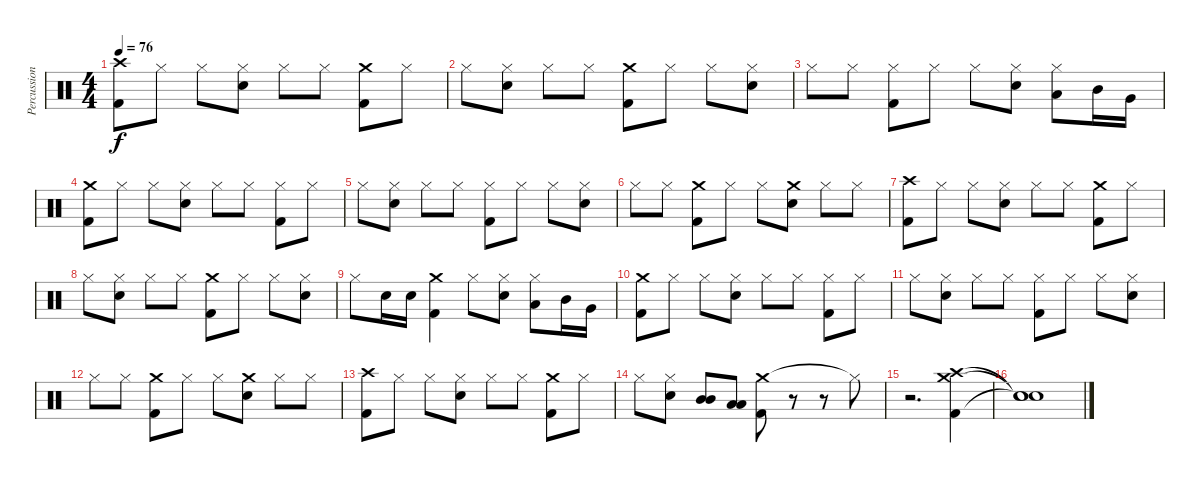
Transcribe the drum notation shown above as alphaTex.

\track ("Percussions" "Percussion") {instrument percussion}
\staff {score}
\articulation defaults
\ts (4 4)
\tempo 76
\clef neutral
\ks c
("Crash high (hit)" "Kick (hit) 2").8{dy f} "Hi-Hat (closed)".8 "Hi-Hat (closed)".8 ("Hi-Hat (closed)" "Electric Snare (hit)").8 "Hi-Hat (closed)".8 "Hi-Hat (closed)".8 ("Crash medium (hit)" "Kick (hit) 2").8 "Hi-Hat (closed)".8 |
"Hi-Hat (closed)".8 ("Hi-Hat (closed)" "Electric Snare (hit)").8 "Hi-Hat (closed)".8 "Hi-Hat (closed)".8 ("Crash medium (hit)" "Kick (hit) 2").8 "Hi-Hat (closed)".8 "Hi-Hat (closed)".8 ("Hi-Hat (closed)" "Electric Snare (hit)").8 |
"Hi-Hat (closed)".8 "Hi-Hat (closed)".8 ("Hi-Hat (closed)" "Kick (hit) 2").8 "Hi-Hat (closed)".8 "Hi-Hat (closed)".8 ("Hi-Hat (closed)" "Electric Snare (hit)").8 ("Hi-Hat (closed)" "Low Tom (hit)").8 "Mid Tom (hit)".16 "Very Low Tom (hit)".16 |
("Crash medium (hit)" "Kick (hit) 2").8 "Hi-Hat (closed)".8 "Hi-Hat (closed)".8 ("Hi-Hat (closed)" "Electric Snare (hit)").8 "Hi-Hat (closed)".8 "Hi-Hat (closed)".8 ("Hi-Hat (closed)" "Kick (hit) 2").8 "Hi-Hat (closed)".8 |
"Hi-Hat (closed)".8 ("Hi-Hat (closed)" "Electric Snare (hit)").8 "Hi-Hat (closed)".8 "Hi-Hat (closed)".8 ("Hi-Hat (closed)" "Kick (hit) 2").8 "Hi-Hat (closed)".8 "Hi-Hat (closed)".8 ("Hi-Hat (closed)" "Electric Snare (hit)").8 |
"Hi-Hat (closed)".8 "Hi-Hat (closed)".8 ("Crash medium (hit)" "Kick (hit) 2").8 "Hi-Hat (closed)".8 "Hi-Hat (closed)".8 ("Crash medium (hit)" "Electric Snare (hit)").8 "Hi-Hat (closed)".8 "Hi-Hat (closed)".8 |
("Crash high (hit)" "Kick (hit) 2").8 "Hi-Hat (closed)".8 "Hi-Hat (closed)".8 ("Hi-Hat (closed)" "Electric Snare (hit)").8 "Hi-Hat (closed)".8 "Hi-Hat (closed)".8 ("Crash medium (hit)" "Kick (hit) 2").8 "Hi-Hat (closed)".8 |
"Hi-Hat (closed)".8 ("Hi-Hat (closed)" "Electric Snare (hit)").8 "Hi-Hat (closed)".8 "Hi-Hat (closed)".8 ("Crash medium (hit)" "Kick (hit) 2").8 "Hi-Hat (closed)".8 "Hi-Hat (closed)".8 ("Hi-Hat (closed)" "Electric Snare (hit)").8 |
"Hi-Hat (closed)".8 "Electric Snare (hit)".16 "Electric Snare (hit)".16 ("Crash medium (hit)" "Kick (hit) 2").4 "Hi-Hat (closed)".8 ("Hi-Hat (closed)" "Electric Snare (hit)").8 ("Hi-Hat (closed)" "Low Tom (hit)").8 "Mid Tom (hit)".16 "Very Low Tom (hit)".16 |
("Crash medium (hit)" "Kick (hit) 2").8 "Hi-Hat (closed)".8 "Hi-Hat (closed)".8 ("Hi-Hat (closed)" "Electric Snare (hit)").8 "Hi-Hat (closed)".8 "Hi-Hat (closed)".8 ("Hi-Hat (closed)" "Kick (hit) 2").8 "Hi-Hat (closed)".8 |
"Hi-Hat (closed)".8 ("Hi-Hat (closed)" "Electric Snare (hit)").8 "Hi-Hat (closed)".8 "Hi-Hat (closed)".8 ("Hi-Hat (closed)" "Kick (hit) 2").8 "Hi-Hat (closed)".8 "Hi-Hat (closed)".8 ("Hi-Hat (closed)" "Electric Snare (hit)").8 |
"Hi-Hat (closed)".8 "Hi-Hat (closed)".8 ("Crash medium (hit)" "Kick (hit) 2").8 "Hi-Hat (closed)".8 "Hi-Hat (closed)".8 ("Crash medium (hit)" "Electric Snare (hit)").8 "Hi-Hat (closed)".8 "Hi-Hat (closed)".8 |
("Crash high (hit)" "Kick (hit) 2").8 "Hi-Hat (closed)".8 "Hi-Hat (closed)".8 ("Hi-Hat (closed)" "Electric Snare (hit)").8 "Hi-Hat (closed)".8 "Hi-Hat (closed)".8 ("Crash medium (hit)" "Kick (hit) 2").8 "Hi-Hat (closed)".8 |
"Hi-Hat (closed)".8 ("Hi-Hat (closed)" "Electric Snare (hit)").8 ("Mid Tom (hit)" "Mid Tom (hit)").8 ("Low Tom (hit)" "Low Tom (hit)").8 ("Crash medium (hit)" "Kick (hit) 2").8 r.8 r.8 "Hi-Hat (closed)"{t}.8 |
r.2{d} ("Crash medium (hit)" "Crash high (hit)" "Kick (hit) 2").4 |
("Snare (hit)"{t} "Snare (hit)"{t} "Snare (hit)"{t}).1
